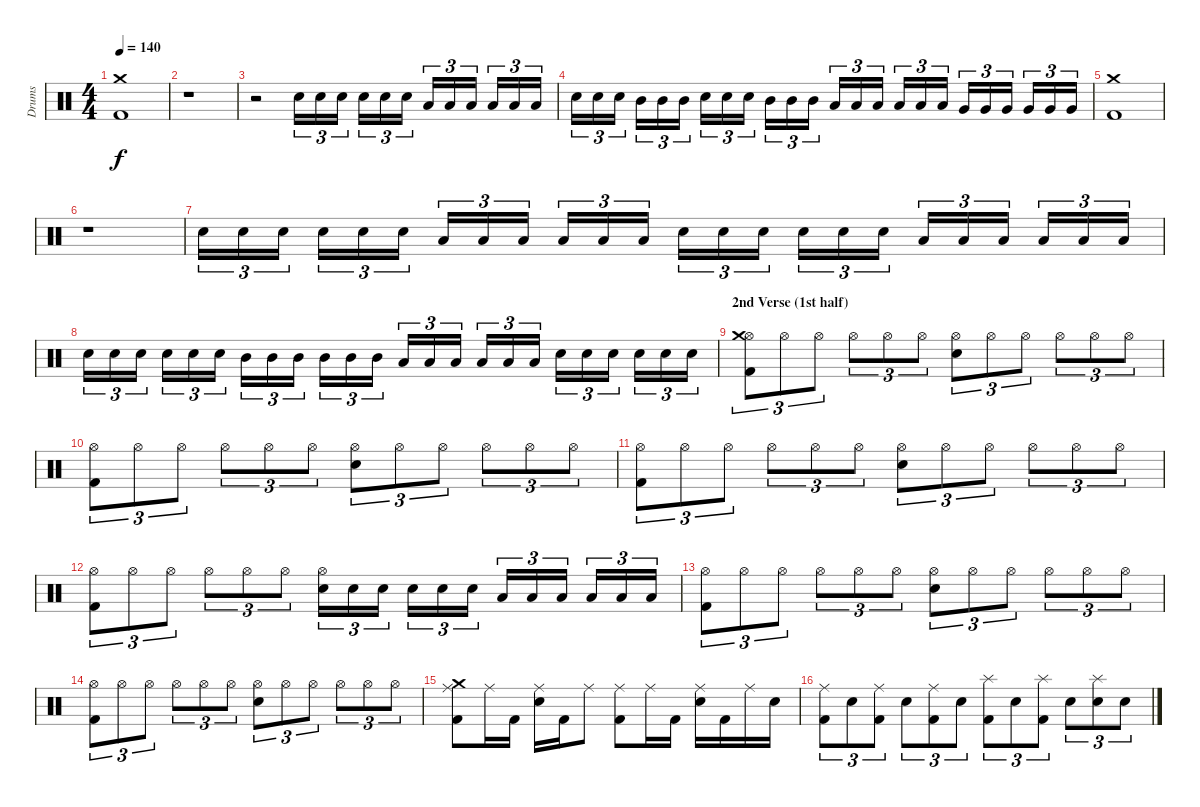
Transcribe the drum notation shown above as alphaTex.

\track ("Drums" "Drums") {instrument percussion}
\staff {score}
\articulation defaults
\ts (4 4)
\tempo 140
\clef neutral
\ks c
("Kick (hit) 2" "Crash medium (hit)").1{dy f} |
r.1 |
r.2 "Snare (hit) 2".16{tu (3 2)} "Snare (hit) 2".16{tu (3 2)} "Snare (hit) 2".16{tu (3 2)} "Snare (hit) 2".16{tu (3 2)} "Snare (hit) 2".16{tu (3 2)} "Snare (hit) 2".16{tu (3 2)} "Low Tom (hit)".16{tu (3 2)} "Low Tom (hit)".16{tu (3 2)} "Low Tom (hit)".16{tu (3 2)} "Low Tom (hit)".16{tu (3 2)} "Low Tom (hit)".16{tu (3 2)} "Low Tom (hit)".16{tu (3 2)} |
"Snare (hit) 2".16{tu (3 2)} "Snare (hit) 2".16{tu (3 2)} "Snare (hit) 2".16{tu (3 2)} "Mid Tom (hit)".16{tu (3 2)} "Mid Tom (hit)".16{tu (3 2)} "Mid Tom (hit)".16{tu (3 2)} "Snare (hit) 2".16{tu (3 2)} "Snare (hit) 2".16{tu (3 2)} "Snare (hit) 2".16{tu (3 2)} "Mid Tom (hit)".16{tu (3 2)} "Mid Tom (hit)".16{tu (3 2)} "Mid Tom (hit)".16{tu (3 2)} "Low Tom (hit)".16{tu (3 2)} "Low Tom (hit)".16{tu (3 2)} "Low Tom (hit)".16{tu (3 2)} "Low Tom (hit)".16{tu (3 2)} "Low Tom (hit)".16{tu (3 2)} "Low Tom (hit)".16{tu (3 2)} "Very Low Tom (hit)".16{tu (3 2)} "Very Low Tom (hit)".16{tu (3 2)} "Very Low Tom (hit)".16{tu (3 2)} "Very Low Tom (hit)".16{tu (3 2)} "Very Low Tom (hit)".16{tu (3 2)} "Very Low Tom (hit)".16{tu (3 2)} |
("Kick (hit) 2" "Crash medium (hit)").1 |
r.1 |
"Snare (hit) 2".16{tu (3 2)} "Snare (hit) 2".16{tu (3 2)} "Snare (hit) 2".16{tu (3 2)} "Snare (hit) 2".16{tu (3 2)} "Snare (hit) 2".16{tu (3 2)} "Snare (hit) 2".16{tu (3 2)} "Low Tom (hit)".16{tu (3 2)} "Low Tom (hit)".16{tu (3 2)} "Low Tom (hit)".16{tu (3 2)} "Low Tom (hit)".16{tu (3 2)} "Low Tom (hit)".16{tu (3 2)} "Low Tom (hit)".16{tu (3 2)} "Snare (hit) 2".16{tu (3 2)} "Snare (hit) 2".16{tu (3 2)} "Snare (hit) 2".16{tu (3 2)} "Snare (hit) 2".16{tu (3 2)} "Snare (hit) 2".16{tu (3 2)} "Snare (hit) 2".16{tu (3 2)} "Low Tom (hit)".16{tu (3 2)} "Low Tom (hit)".16{tu (3 2)} "Low Tom (hit)".16{tu (3 2)} "Low Tom (hit)".16{tu (3 2)} "Low Tom (hit)".16{tu (3 2)} "Low Tom (hit)".16{tu (3 2)} |
"Snare (hit) 2".16{tu (3 2)} "Snare (hit) 2".16{tu (3 2)} "Snare (hit) 2".16{tu (3 2)} "Snare (hit) 2".16{tu (3 2)} "Snare (hit) 2".16{tu (3 2)} "Snare (hit) 2".16{tu (3 2)} "Mid Tom (hit)".16{tu (3 2)} "Mid Tom (hit)".16{tu (3 2)} "Mid Tom (hit)".16{tu (3 2)} "Mid Tom (hit)".16{tu (3 2)} "Mid Tom (hit)".16{tu (3 2)} "Mid Tom (hit)".16{tu (3 2)} "Low Tom (hit)".16{tu (3 2)} "Low Tom (hit)".16{tu (3 2)} "Low Tom (hit)".16{tu (3 2)} "Low Tom (hit)".16{tu (3 2)} "Low Tom (hit)".16{tu (3 2)} "Low Tom (hit)".16{tu (3 2)} "Snare (hit) 2".16{tu (3 2)} "Snare (hit) 2".16{tu (3 2)} "Snare (hit) 2".16{tu (3 2)} "Snare (hit) 2".16{tu (3 2)} "Snare (hit) 2".16{tu (3 2)} "Snare (hit) 2".16{tu (3 2)} |
\section ("" "2nd Verse (1st half)")
("Kick (hit) 2" "Hi-Hat (open)" "Crash medium (hit)").8{tu (3 2)} "Hi-Hat (open)".8{tu (3 2)} "Hi-Hat (open)".8{tu (3 2)} "Hi-Hat (open)".8{tu (3 2)} "Hi-Hat (open)".8{tu (3 2)} "Hi-Hat (open)".8{tu (3 2)} ("Electric Snare (hit)" "Hi-Hat (open)").8{tu (3 2)} "Hi-Hat (open)".8{tu (3 2)} "Hi-Hat (open)".8{tu (3 2)} "Hi-Hat (open)".8{tu (3 2)} "Hi-Hat (open)".8{tu (3 2)} "Hi-Hat (open)".8{tu (3 2)} |
("Kick (hit) 2" "Hi-Hat (open)").8{tu (3 2)} "Hi-Hat (open)".8{tu (3 2)} "Hi-Hat (open)".8{tu (3 2)} "Hi-Hat (open)".8{tu (3 2)} "Hi-Hat (open)".8{tu (3 2)} "Hi-Hat (open)".8{tu (3 2)} ("Electric Snare (hit)" "Hi-Hat (open)").8{tu (3 2)} "Hi-Hat (open)".8{tu (3 2)} "Hi-Hat (open)".8{tu (3 2)} "Hi-Hat (open)".8{tu (3 2)} "Hi-Hat (open)".8{tu (3 2)} "Hi-Hat (open)".8{tu (3 2)} |
("Kick (hit) 2" "Hi-Hat (open)").8{tu (3 2)} "Hi-Hat (open)".8{tu (3 2)} "Hi-Hat (open)".8{tu (3 2)} "Hi-Hat (open)".8{tu (3 2)} "Hi-Hat (open)".8{tu (3 2)} "Hi-Hat (open)".8{tu (3 2)} ("Electric Snare (hit)" "Hi-Hat (open)").8{tu (3 2)} "Hi-Hat (open)".8{tu (3 2)} "Hi-Hat (open)".8{tu (3 2)} "Hi-Hat (open)".8{tu (3 2)} "Hi-Hat (open)".8{tu (3 2)} "Hi-Hat (open)".8{tu (3 2)} |
("Kick (hit) 2" "Hi-Hat (open)").8{tu (3 2)} "Hi-Hat (open)".8{tu (3 2)} "Hi-Hat (open)".8{tu (3 2)} "Hi-Hat (open)".8{tu (3 2)} "Hi-Hat (open)".8{tu (3 2)} "Hi-Hat (open)".8{tu (3 2)} ("Snare (hit) 2" "Hi-Hat (open)").16{tu (3 2)} "Snare (hit) 2".16{tu (3 2)} "Snare (hit) 2".16{tu (3 2)} "Snare (hit) 2".16{tu (3 2)} "Snare (hit) 2".16{tu (3 2)} "Snare (hit) 2".16{tu (3 2)} "Low Tom (hit)".16{tu (3 2)} "Low Tom (hit)".16{tu (3 2)} "Low Tom (hit)".16{tu (3 2)} "Low Tom (hit)".16{tu (3 2)} "Low Tom (hit)".16{tu (3 2)} "Low Tom (hit)".16{tu (3 2)} |
("Kick (hit) 2" "Hi-Hat (open)").8{tu (3 2)} "Hi-Hat (open)".8{tu (3 2)} "Hi-Hat (open)".8{tu (3 2)} "Hi-Hat (open)".8{tu (3 2)} "Hi-Hat (open)".8{tu (3 2)} "Hi-Hat (open)".8{tu (3 2)} ("Electric Snare (hit)" "Hi-Hat (open)").8{tu (3 2)} "Hi-Hat (open)".8{tu (3 2)} "Hi-Hat (open)".8{tu (3 2)} "Hi-Hat (open)".8{tu (3 2)} "Hi-Hat (open)".8{tu (3 2)} "Hi-Hat (open)".8{tu (3 2)} |
("Kick (hit) 2" "Hi-Hat (open)").8{tu (3 2)} "Hi-Hat (open)".8{tu (3 2)} "Hi-Hat (open)".8{tu (3 2)} "Hi-Hat (open)".8{tu (3 2)} "Hi-Hat (open)".8{tu (3 2)} "Hi-Hat (open)".8{tu (3 2)} ("Electric Snare (hit)" "Hi-Hat (open)").8{tu (3 2)} "Hi-Hat (open)".8{tu (3 2)} "Hi-Hat (open)".8{tu (3 2)} "Hi-Hat (open)".8{tu (3 2)} "Hi-Hat (open)".8{tu (3 2)} "Hi-Hat (open)".8{tu (3 2)} |
("Kick (hit) 2" "Ride (middle)" "Crash medium (hit)").8 "Ride (middle)".16 "Kick (hit) 2".16 ("Electric Snare (hit)" "Ride (middle)").16 "Kick (hit) 2".16 "Ride (middle)".8 ("Kick (hit) 2" "Ride (middle)").8 "Ride (middle)".16 "Kick (hit) 2".16 ("Electric Snare (hit)" "Ride (middle)").16 "Kick (hit) 2".16 "Ride (middle)".16 "Electric Snare (hit)".16 |
("Kick (hit) 2" "Ride (middle)").8{tu (3 2)} "Electric Snare (hit)".8{tu (3 2)} ("Kick (hit) 2" "Ride (middle)").8{tu (3 2)} "Electric Snare (hit)".8{tu (3 2)} ("Kick (hit) 2" "Ride (middle)").8{tu (3 2)} "Electric Snare (hit)".8{tu (3 2)} ("Kick (hit) 2" "Splash (hit)").8{tu (3 2)} "Electric Snare (hit)".8{tu (3 2)} ("Kick (hit) 2" "Splash (hit)").8{tu (3 2)} "Electric Snare (hit)".8{tu (3 2)} ("Electric Snare (hit)" "Splash (hit)").8{tu (3 2)} "Electric Snare (hit)".8{tu (3 2)}
